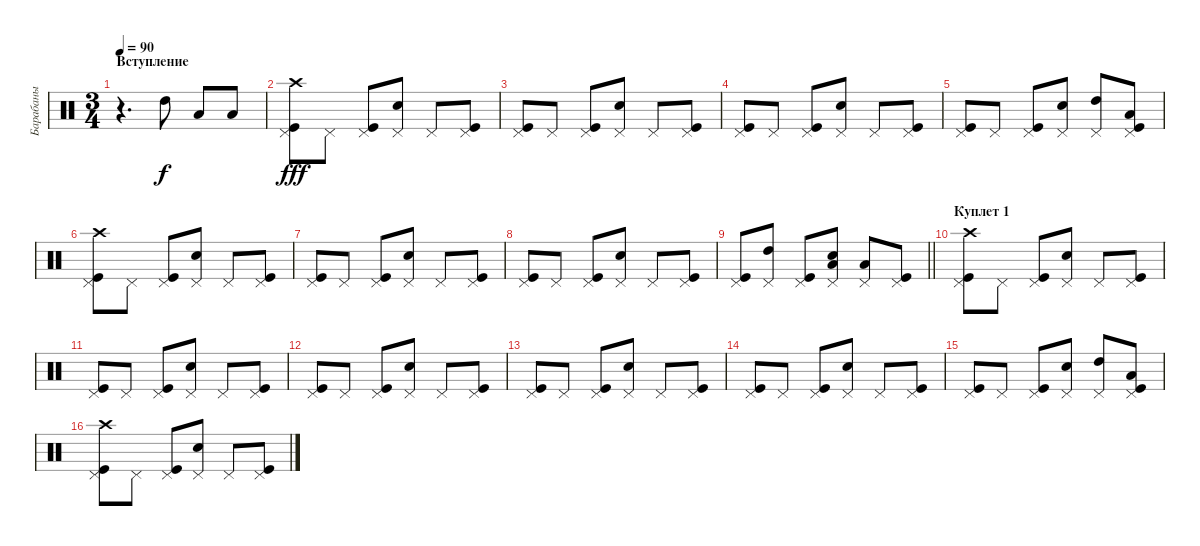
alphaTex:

\track ("Барабаны" "Барабаны") {instrument percussion}
\staff {score}
\articulation defaults
\ts (3 4)
\section ("" "Вступление")
\tempo 90
\clef neutral
\ks c
r.4{d dy f} "High Tom (hit)".8 "Low Tom (hit)".8 "Low Floor Tom (hit)".8 |
("Kick (hit)" "Pedal Hi-Hat (hit)" "Crash high (hit)").8{dy fff} "Pedal Hi-Hat (hit)".8 ("Kick (hit)" "Pedal Hi-Hat (hit)").8 ("Snare (hit) 2" "Pedal Hi-Hat (hit)").8 "Pedal Hi-Hat (hit)".8 ("Kick (hit)" "Pedal Hi-Hat (hit)").8 |
("Kick (hit)" "Pedal Hi-Hat (hit)").8 "Pedal Hi-Hat (hit)".8 ("Kick (hit)" "Pedal Hi-Hat (hit)").8 ("Snare (hit) 2" "Pedal Hi-Hat (hit)").8 "Pedal Hi-Hat (hit)".8 ("Kick (hit)" "Pedal Hi-Hat (hit)").8 |
("Kick (hit)" "Pedal Hi-Hat (hit)").8 "Pedal Hi-Hat (hit)".8 ("Kick (hit)" "Pedal Hi-Hat (hit)").8 ("Snare (hit) 2" "Pedal Hi-Hat (hit)").8 "Pedal Hi-Hat (hit)".8 ("Kick (hit)" "Pedal Hi-Hat (hit)").8 |
("Kick (hit)" "Pedal Hi-Hat (hit)").8 "Pedal Hi-Hat (hit)".8 ("Kick (hit)" "Pedal Hi-Hat (hit)").8 ("Snare (hit) 2" "Pedal Hi-Hat (hit)").8 ("Pedal Hi-Hat (hit)" "High Tom (hit)").8 ("Kick (hit)" "Pedal Hi-Hat (hit)" "Low Floor Tom (hit)").8 |
("Kick (hit)" "Pedal Hi-Hat (hit)" "Crash high (hit)").8 "Pedal Hi-Hat (hit)".8 ("Kick (hit)" "Pedal Hi-Hat (hit)").8 ("Snare (hit) 2" "Pedal Hi-Hat (hit)").8 "Pedal Hi-Hat (hit)".8 ("Kick (hit)" "Pedal Hi-Hat (hit)").8 |
("Kick (hit)" "Pedal Hi-Hat (hit)").8 "Pedal Hi-Hat (hit)".8 ("Kick (hit)" "Pedal Hi-Hat (hit)").8 ("Snare (hit) 2" "Pedal Hi-Hat (hit)").8 "Pedal Hi-Hat (hit)".8 ("Kick (hit)" "Pedal Hi-Hat (hit)").8 |
("Kick (hit)" "Pedal Hi-Hat (hit)").8 "Pedal Hi-Hat (hit)".8 ("Kick (hit)" "Pedal Hi-Hat (hit)").8 ("Snare (hit) 2" "Pedal Hi-Hat (hit)").8 "Pedal Hi-Hat (hit)".8 ("Kick (hit)" "Pedal Hi-Hat (hit)").8 |
\barLineRight lightlight
("Kick (hit)" "Pedal Hi-Hat (hit)").8 ("Pedal Hi-Hat (hit)" "High Tom (hit)").8 ("Kick (hit)" "Pedal Hi-Hat (hit)").8 ("Snare (hit) 2" "Pedal Hi-Hat (hit)" "Low Floor Tom (hit)").8 ("Pedal Hi-Hat (hit)" "Low Floor Tom (hit)").8 ("Kick (hit)" "Pedal Hi-Hat (hit)").8 |
\section ("" "Куплет 1")
("Kick (hit)" "Pedal Hi-Hat (hit)" "Crash high (hit)").8 "Pedal Hi-Hat (hit)".8 ("Kick (hit)" "Pedal Hi-Hat (hit)").8 ("Snare (hit) 2" "Pedal Hi-Hat (hit)").8 "Pedal Hi-Hat (hit)".8 ("Kick (hit)" "Pedal Hi-Hat (hit)").8 |
("Kick (hit)" "Pedal Hi-Hat (hit)").8 "Pedal Hi-Hat (hit)".8 ("Kick (hit)" "Pedal Hi-Hat (hit)").8 ("Snare (hit) 2" "Pedal Hi-Hat (hit)").8 "Pedal Hi-Hat (hit)".8 ("Kick (hit)" "Pedal Hi-Hat (hit)").8 |
("Kick (hit)" "Pedal Hi-Hat (hit)").8 "Pedal Hi-Hat (hit)".8 ("Kick (hit)" "Pedal Hi-Hat (hit)").8 ("Snare (hit) 2" "Pedal Hi-Hat (hit)").8 "Pedal Hi-Hat (hit)".8 ("Kick (hit)" "Pedal Hi-Hat (hit)").8 |
("Kick (hit)" "Pedal Hi-Hat (hit)").8 "Pedal Hi-Hat (hit)".8 ("Kick (hit)" "Pedal Hi-Hat (hit)").8 ("Snare (hit) 2" "Pedal Hi-Hat (hit)").8 "Pedal Hi-Hat (hit)".8 ("Kick (hit)" "Pedal Hi-Hat (hit)").8 |
("Kick (hit)" "Pedal Hi-Hat (hit)").8 "Pedal Hi-Hat (hit)".8 ("Kick (hit)" "Pedal Hi-Hat (hit)").8 ("Snare (hit) 2" "Pedal Hi-Hat (hit)").8 "Pedal Hi-Hat (hit)".8 ("Kick (hit)" "Pedal Hi-Hat (hit)").8 |
("Kick (hit)" "Pedal Hi-Hat (hit)").8 "Pedal Hi-Hat (hit)".8 ("Kick (hit)" "Pedal Hi-Hat (hit)").8 ("Snare (hit) 2" "Pedal Hi-Hat (hit)").8 ("Pedal Hi-Hat (hit)" "High Tom (hit)").8 ("Kick (hit)" "Pedal Hi-Hat (hit)" "Low Floor Tom (hit)").8 |
("Kick (hit)" "Pedal Hi-Hat (hit)" "Crash high (hit)").8 "Pedal Hi-Hat (hit)".8 ("Kick (hit)" "Pedal Hi-Hat (hit)").8 ("Snare (hit) 2" "Pedal Hi-Hat (hit)").8 "Pedal Hi-Hat (hit)".8 ("Kick (hit)" "Pedal Hi-Hat (hit)").8
